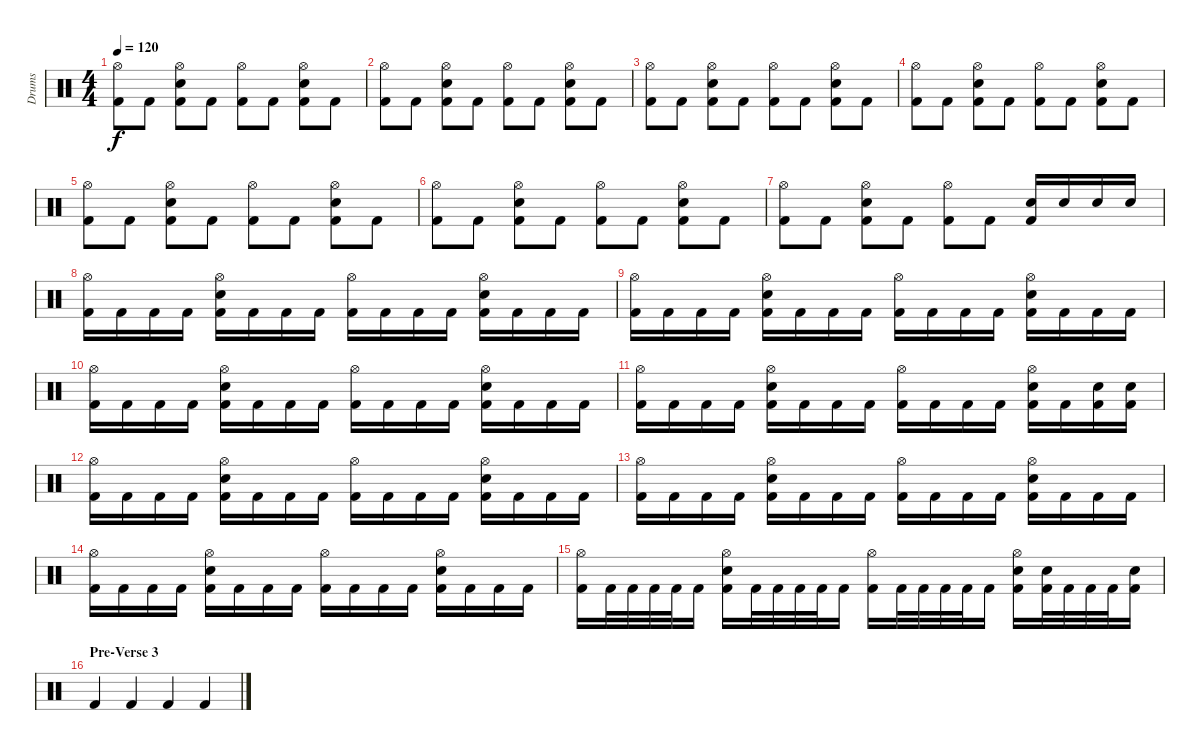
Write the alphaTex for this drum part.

\track ("Drums" "Drums") {instrument percussion}
\staff {score}
\articulation defaults
\ts (4 4)
\tempo 120
\clef neutral
\ks c
("Hi-Hat (open)" "Kick (hit) 2").8{dy f} "Kick (hit) 2".8 ("Hi-Hat (open)" "Snare (hit) 2" "Kick (hit) 2").8 "Kick (hit) 2".8 ("Hi-Hat (open)" "Kick (hit) 2").8 "Kick (hit) 2".8 ("Hi-Hat (open)" "Snare (hit) 2" "Kick (hit) 2").8 "Kick (hit) 2".8 |
("Hi-Hat (open)" "Kick (hit) 2").8 "Kick (hit) 2".8 ("Hi-Hat (open)" "Snare (hit) 2" "Kick (hit) 2").8 "Kick (hit) 2".8 ("Hi-Hat (open)" "Kick (hit) 2").8 "Kick (hit) 2".8 ("Hi-Hat (open)" "Snare (hit) 2" "Kick (hit) 2").8 "Kick (hit) 2".8 |
("Hi-Hat (open)" "Kick (hit) 2").8 "Kick (hit) 2".8 ("Hi-Hat (open)" "Snare (hit) 2" "Kick (hit) 2").8 "Kick (hit) 2".8 ("Hi-Hat (open)" "Kick (hit) 2").8 "Kick (hit) 2".8 ("Hi-Hat (open)" "Snare (hit) 2" "Kick (hit) 2").8 "Kick (hit) 2".8 |
("Hi-Hat (open)" "Kick (hit) 2").8 "Kick (hit) 2".8 ("Hi-Hat (open)" "Snare (hit) 2" "Kick (hit) 2").8 "Kick (hit) 2".8 ("Hi-Hat (open)" "Kick (hit) 2").8 "Kick (hit) 2".8 ("Hi-Hat (open)" "Snare (hit) 2" "Kick (hit) 2").8 "Kick (hit) 2".8 |
("Hi-Hat (open)" "Kick (hit) 2").8 "Kick (hit) 2".8 ("Hi-Hat (open)" "Snare (hit) 2" "Kick (hit) 2").8 "Kick (hit) 2".8 ("Hi-Hat (open)" "Kick (hit) 2").8 "Kick (hit) 2".8 ("Hi-Hat (open)" "Snare (hit) 2" "Kick (hit) 2").8 "Kick (hit) 2".8 |
("Hi-Hat (open)" "Kick (hit) 2").8 "Kick (hit) 2".8 ("Hi-Hat (open)" "Snare (hit) 2" "Kick (hit) 2").8 "Kick (hit) 2".8 ("Hi-Hat (open)" "Kick (hit) 2").8 "Kick (hit) 2".8 ("Hi-Hat (open)" "Snare (hit) 2" "Kick (hit) 2").8 "Kick (hit) 2".8 |
("Hi-Hat (open)" "Kick (hit) 2").8 "Kick (hit) 2".8 ("Hi-Hat (open)" "Snare (hit) 2" "Kick (hit) 2").8 "Kick (hit) 2".8 ("Hi-Hat (open)" "Kick (hit) 2").8 "Kick (hit) 2".8 ("Snare (hit) 2" "Kick (hit) 2").16 "Snare (hit) 2".16 "Snare (hit) 2".16 "Snare (hit) 2".16 |
("Hi-Hat (open)" "Kick (hit) 2").16 "Kick (hit) 2".16 "Kick (hit) 2".16 "Kick (hit) 2".16 ("Hi-Hat (open)" "Snare (hit) 2" "Kick (hit) 2").16 "Kick (hit) 2".16 "Kick (hit) 2".16 "Kick (hit) 2".16 ("Hi-Hat (open)" "Kick (hit) 2").16 "Kick (hit) 2".16 "Kick (hit) 2".16 "Kick (hit) 2".16 ("Hi-Hat (open)" "Snare (hit) 2" "Kick (hit) 2").16 "Kick (hit) 2".16 "Kick (hit) 2".16 "Kick (hit) 2".16 |
("Hi-Hat (open)" "Kick (hit) 2").16 "Kick (hit) 2".16 "Kick (hit) 2".16 "Kick (hit) 2".16 ("Hi-Hat (open)" "Snare (hit) 2" "Kick (hit) 2").16 "Kick (hit) 2".16 "Kick (hit) 2".16 "Kick (hit) 2".16 ("Hi-Hat (open)" "Kick (hit) 2").16 "Kick (hit) 2".16 "Kick (hit) 2".16 "Kick (hit) 2".16 ("Hi-Hat (open)" "Snare (hit) 2" "Kick (hit) 2").16 "Kick (hit) 2".16 "Kick (hit) 2".16 "Kick (hit) 2".16 |
("Hi-Hat (open)" "Kick (hit) 2").16 "Kick (hit) 2".16 "Kick (hit) 2".16 "Kick (hit) 2".16 ("Hi-Hat (open)" "Snare (hit) 2" "Kick (hit) 2").16 "Kick (hit) 2".16 "Kick (hit) 2".16 "Kick (hit) 2".16 ("Hi-Hat (open)" "Kick (hit) 2").16 "Kick (hit) 2".16 "Kick (hit) 2".16 "Kick (hit) 2".16 ("Hi-Hat (open)" "Snare (hit) 2" "Kick (hit) 2").16 "Kick (hit) 2".16 "Kick (hit) 2".16 "Kick (hit) 2".16 |
("Hi-Hat (open)" "Kick (hit) 2").16 "Kick (hit) 2".16 "Kick (hit) 2".16 "Kick (hit) 2".16 ("Hi-Hat (open)" "Snare (hit) 2" "Kick (hit) 2").16 "Kick (hit) 2".16 "Kick (hit) 2".16 "Kick (hit) 2".16 ("Hi-Hat (open)" "Kick (hit) 2").16 "Kick (hit) 2".16 "Kick (hit) 2".16 "Kick (hit) 2".16 ("Hi-Hat (open)" "Snare (hit) 2" "Kick (hit) 2").16 "Kick (hit) 2".16 ("Snare (hit) 2" "Kick (hit) 2").16 ("Snare (hit) 2" "Kick (hit) 2").16 |
("Hi-Hat (open)" "Kick (hit) 2").16 "Kick (hit) 2".16 "Kick (hit) 2".16 "Kick (hit) 2".16 ("Hi-Hat (open)" "Snare (hit) 2" "Kick (hit) 2").16 "Kick (hit) 2".16 "Kick (hit) 2".16 "Kick (hit) 2".16 ("Hi-Hat (open)" "Kick (hit) 2").16 "Kick (hit) 2".16 "Kick (hit) 2".16 "Kick (hit) 2".16 ("Hi-Hat (open)" "Snare (hit) 2" "Kick (hit) 2").16 "Kick (hit) 2".16 "Kick (hit) 2".16 "Kick (hit) 2".16 |
("Hi-Hat (open)" "Kick (hit) 2").16 "Kick (hit) 2".16 "Kick (hit) 2".16 "Kick (hit) 2".16 ("Hi-Hat (open)" "Snare (hit) 2" "Kick (hit) 2").16 "Kick (hit) 2".16 "Kick (hit) 2".16 "Kick (hit) 2".16 ("Hi-Hat (open)" "Kick (hit) 2").16 "Kick (hit) 2".16 "Kick (hit) 2".16 "Kick (hit) 2".16 ("Hi-Hat (open)" "Snare (hit) 2" "Kick (hit) 2").16 "Kick (hit) 2".16 "Kick (hit) 2".16 "Kick (hit) 2".16 |
("Hi-Hat (open)" "Kick (hit) 2").16 "Kick (hit) 2".16 "Kick (hit) 2".16 "Kick (hit) 2".16 ("Hi-Hat (open)" "Snare (hit) 2" "Kick (hit) 2").16 "Kick (hit) 2".16 "Kick (hit) 2".16 "Kick (hit) 2".16 ("Hi-Hat (open)" "Kick (hit) 2").16 "Kick (hit) 2".16 "Kick (hit) 2".16 "Kick (hit) 2".16 ("Hi-Hat (open)" "Snare (hit) 2" "Kick (hit) 2").16 "Kick (hit) 2".16 "Kick (hit) 2".16 "Kick (hit) 2".16 |
("Hi-Hat (open)" "Kick (hit) 2").16 "Kick (hit) 2".32 "Kick (hit) 2".32 "Kick (hit) 2".32 "Kick (hit) 2".32 "Kick (hit) 2".16 ("Hi-Hat (open)" "Snare (hit) 2" "Kick (hit) 2").16 "Kick (hit) 2".32 "Kick (hit) 2".32 "Kick (hit) 2".32 "Kick (hit) 2".32 "Kick (hit) 2".16 ("Hi-Hat (open)" "Kick (hit) 2").16 "Kick (hit) 2".32 "Kick (hit) 2".32 "Kick (hit) 2".32 "Kick (hit) 2".32 "Kick (hit) 2".16 ("Hi-Hat (open)" "Snare (hit) 2" "Kick (hit) 2").16 ("Snare (hit) 2" "Kick (hit) 2").32 "Kick (hit) 2".32 "Kick (hit) 2".32 "Kick (hit) 2".32 ("Snare (hit) 2" "Kick (hit) 2").16 |
\section ("" "Pre-Verse 3")
"Kick (hit) 2".4 "Kick (hit) 2".4 "Kick (hit) 2".4 "Kick (hit) 2".4
